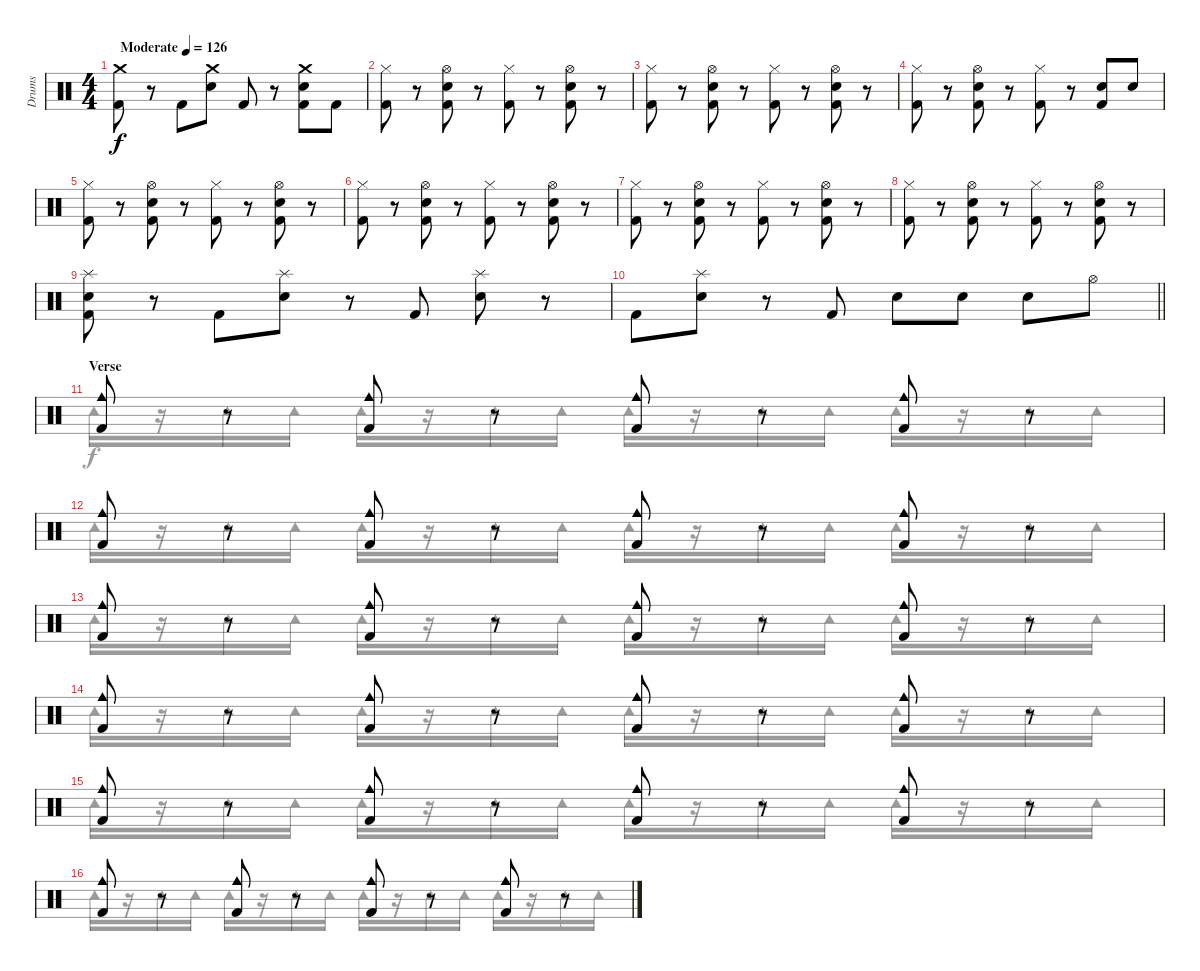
\track ("Drums" "Drums") {instrument percussion}
\staff {score}
\articulation defaults
\voice
\ts (4 4)
\tempo (126 "Moderate")
\clef neutral
\ks c
("Crash medium (hit)" "Kick (hit) 2").8{dy f} r.8 "Kick (hit) 2".8 ("Crash medium (hit)" "Electric Snare (hit)").8 "Kick (hit) 2".8 r.8 ("Crash medium (hit)" "Electric Snare (hit)" "Kick (hit) 2").8 "Kick (hit) 2".8 |
("Hi-Hat (closed)" "Kick (hit) 2").8 r.8 ("Hi-Hat (open)" "Electric Snare (hit)" "Kick (hit) 2").8 r.8 ("Hi-Hat (closed)" "Kick (hit) 2").8 r.8 ("Hi-Hat (open)" "Electric Snare (hit)" "Kick (hit) 2").8 r.8 |
("Hi-Hat (closed)" "Kick (hit) 2").8 r.8 ("Hi-Hat (open)" "Electric Snare (hit)" "Kick (hit) 2").8 r.8 ("Hi-Hat (closed)" "Kick (hit) 2").8 r.8 ("Hi-Hat (open)" "Electric Snare (hit)" "Kick (hit) 2").8 r.8 |
("Hi-Hat (closed)" "Kick (hit) 2").8 r.8 ("Hi-Hat (open)" "Electric Snare (hit)" "Kick (hit) 2").8 r.8 ("Hi-Hat (closed)" "Kick (hit) 2").8 r.8 ("Electric Snare (hit)" "Kick (hit) 2").8 "Electric Snare (hit)".8 |
("Hi-Hat (closed)" "Kick (hit) 2").8 r.8 ("Hi-Hat (open)" "Electric Snare (hit)" "Kick (hit) 2").8 r.8 ("Hi-Hat (closed)" "Kick (hit) 2").8 r.8 ("Hi-Hat (open)" "Electric Snare (hit)" "Kick (hit) 2").8 r.8 |
("Hi-Hat (closed)" "Kick (hit) 2").8 r.8 ("Hi-Hat (open)" "Electric Snare (hit)" "Kick (hit) 2").8 r.8 ("Hi-Hat (closed)" "Kick (hit) 2").8 r.8 ("Hi-Hat (open)" "Electric Snare (hit)" "Kick (hit) 2").8 r.8 |
("Hi-Hat (closed)" "Kick (hit) 2").8 r.8 ("Hi-Hat (open)" "Electric Snare (hit)" "Kick (hit) 2").8 r.8 ("Hi-Hat (closed)" "Kick (hit) 2").8 r.8 ("Hi-Hat (open)" "Electric Snare (hit)" "Kick (hit) 2").8 r.8 |
("Hi-Hat (closed)" "Kick (hit) 2").8 r.8 ("Hi-Hat (open)" "Electric Snare (hit)" "Kick (hit) 2").8 r.8 ("Hi-Hat (closed)" "Kick (hit) 2").8 r.8 ("Hi-Hat (open)" "Electric Snare (hit)" "Kick (hit) 2").8 r.8 |
("Splash (hit)" "Electric Snare (hit)" "Kick (hit) 2").8 r.8 "Kick (hit) 2".8 ("Splash (hit)" "Electric Snare (hit)").8 r.8 "Kick (hit) 2".8 ("Splash (hit)" "Electric Snare (hit)").8 r.8 |
\barLineRight lightlight "Kick (hit) 2".8
("Splash (hit)" "Electric Snare (hit)").8 r.8 "Kick (hit) 2".8 "Electric Snare (hit)".8 "Electric Snare (hit)".8 "Electric Snare (hit)".8 "Hi-Hat (open)".8 |
\section ("" "Verse")
("Cowbell medium (hit)" "Kick (hit) 2").8 r.8 ("Cowbell medium (hit)" "Kick (hit) 2").8 r.8 ("Cowbell medium (hit)" "Kick (hit) 2").8 r.8 ("Cowbell medium (hit)" "Kick (hit) 2").8 r.8 |
("Cowbell medium (hit)" "Kick (hit) 2").8 r.8 ("Cowbell medium (hit)" "Kick (hit) 2").8 r.8 ("Cowbell medium (hit)" "Kick (hit) 2").8 r.8 ("Cowbell medium (hit)" "Kick (hit) 2").8 r.8 |
("Cowbell medium (hit)" "Kick (hit) 2").8 r.8 ("Cowbell medium (hit)" "Kick (hit) 2").8 r.8 ("Cowbell medium (hit)" "Kick (hit) 2").8 r.8 ("Cowbell medium (hit)" "Kick (hit) 2").8 r.8 |
("Cowbell medium (hit)" "Kick (hit) 2").8 r.8 ("Cowbell medium (hit)" "Kick (hit) 2").8 r.8 ("Cowbell medium (hit)" "Kick (hit) 2").8 r.8 ("Cowbell medium (hit)" "Kick (hit) 2").8 r.8 |
("Cowbell medium (hit)" "Kick (hit) 2").8 r.8 ("Cowbell medium (hit)" "Kick (hit) 2").8 r.8 ("Cowbell medium (hit)" "Kick (hit) 2").8 r.8 ("Cowbell medium (hit)" "Kick (hit) 2").8 r.8 |
("Cowbell medium (hit)" "Kick (hit) 2").8 r.8 ("Cowbell medium (hit)" "Kick (hit) 2").8 r.8 ("Cowbell medium (hit)" "Kick (hit) 2").8 r.8 ("Cowbell medium (hit)" "Kick (hit) 2").8 r.8
\voice
\clef neutral
\ottava regular
\simile none
\ks c
|
|
|
|
|
|
|
|
|
\barLineRight lightlight
|
"Tambourine (hit)".16 r.16 "Tambourine (hit)".16 "Tambourine (hit)".16 "Tambourine (hit)".16 r.16 "Tambourine (hit)".16 "Tambourine (hit)".16 "Tambourine (hit)".16 r.16 "Tambourine (hit)".16 "Tambourine (hit)".16 "Tambourine (hit)".16 r.16 "Tambourine (hit)".16 "Tambourine (hit)".16 |
"Tambourine (hit)".16 r.16 "Tambourine (hit)".16 "Tambourine (hit)".16 "Tambourine (hit)".16 r.16 "Tambourine (hit)".16 "Tambourine (hit)".16 "Tambourine (hit)".16 r.16 "Tambourine (hit)".16 "Tambourine (hit)".16 "Tambourine (hit)".16 r.16 "Tambourine (hit)".16 "Tambourine (hit)".16 |
"Tambourine (hit)".16 r.16 "Tambourine (hit)".16 "Tambourine (hit)".16 "Tambourine (hit)".16 r.16 "Tambourine (hit)".16 "Tambourine (hit)".16 "Tambourine (hit)".16 r.16 "Tambourine (hit)".16 "Tambourine (hit)".16 "Tambourine (hit)".16 r.16 "Tambourine (hit)".16 "Tambourine (hit)".16 |
"Tambourine (hit)".16 r.16 "Tambourine (hit)".16 "Tambourine (hit)".16 "Tambourine (hit)".16 r.16 "Tambourine (hit)".16 "Tambourine (hit)".16 "Tambourine (hit)".16 r.16 "Tambourine (hit)".16 "Tambourine (hit)".16 "Tambourine (hit)".16 r.16 "Tambourine (hit)".16 "Tambourine (hit)".16 |
"Tambourine (hit)".16 r.16 "Tambourine (hit)".16 "Tambourine (hit)".16 "Tambourine (hit)".16 r.16 "Tambourine (hit)".16 "Tambourine (hit)".16 "Tambourine (hit)".16 r.16 "Tambourine (hit)".16 "Tambourine (hit)".16 "Tambourine (hit)".16 r.16 "Tambourine (hit)".16 "Tambourine (hit)".16 |
"Tambourine (hit)".16 r.16 "Tambourine (hit)".16 "Tambourine (hit)".16 "Tambourine (hit)".16 r.16 "Tambourine (hit)".16 "Tambourine (hit)".16 "Tambourine (hit)".16 r.16 "Tambourine (hit)".16 "Tambourine (hit)".16 "Tambourine (hit)".16 r.16 "Tambourine (hit)".16 "Tambourine (hit)".16
